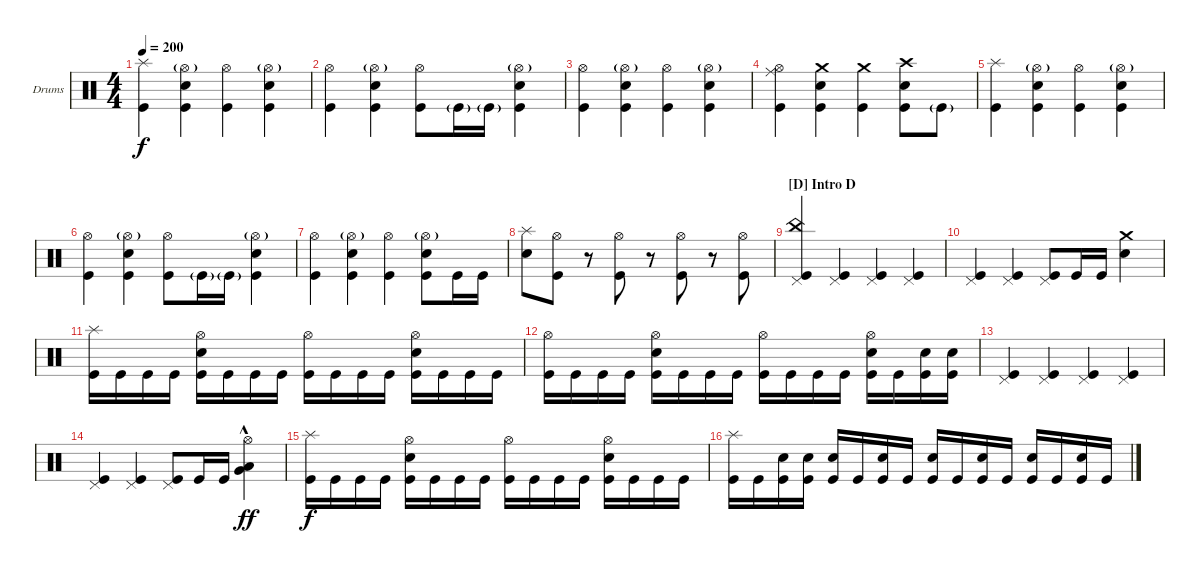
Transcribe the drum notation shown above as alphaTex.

\defaultSystemsLayout 4
\bracketExtendMode groupsimilarinstruments
\firstSystemTrackNameOrientation horizontal
\otherSystemsTrackNameOrientation horizontal
\track ("Drumkit" "Drums") {instrument percussion}
\staff {score}
\articulation defaults
\ts (4 4)
\tempo 200
\clef neutral
\ks c
("Splash (hit)" "Kick (hit)").4{dy f} ("Snare (hit) 2" "Kick (hit)" "Hi-Hat (open)"{g}).4 ("Kick (hit)" "Hi-Hat (open)").4 ("Snare (hit) 2" "Kick (hit)" "Hi-Hat (open)"{g}).4 |
("Kick (hit)" "Hi-Hat (open)").4 ("Snare (hit) 2" "Kick (hit)" "Hi-Hat (open)"{g}).4 ("Kick (hit)" "Hi-Hat (open)").8 "Kick (hit)"{g}.16 "Kick (hit)"{g}.16 ("Kick (hit)" "Snare (hit) 2" "Hi-Hat (open)"{g}).4 |
("Kick (hit)" "Hi-Hat (open)").4 ("Snare (hit) 2" "Kick (hit)" "Hi-Hat (open)"{g}).4 ("Kick (hit)" "Hi-Hat (open)").4 ("Snare (hit) 2" "Kick (hit)" "Hi-Hat (open)"{g}).4 |
("Kick (hit)" "Hi-Hat (open)" "Ride (middle)").4 ("Kick (hit)" "Snare (hit) 2" "Crash medium (hit)").4 ("Kick (hit)" "Crash medium (hit)").4 ("Kick (hit)" "Snare (hit) 2" "Crash high (hit)").8 "Kick (hit)"{g}.8 |
("Splash (hit)" "Kick (hit)").4 ("Snare (hit) 2" "Kick (hit)" "Hi-Hat (open)"{g}).4 ("Kick (hit)" "Hi-Hat (open)").4 ("Snare (hit) 2" "Kick (hit)" "Hi-Hat (open)"{g}).4 |
("Kick (hit)" "Hi-Hat (open)").4 ("Snare (hit) 2" "Kick (hit)" "Hi-Hat (open)"{g}).4 ("Kick (hit)" "Hi-Hat (open)").8 "Kick (hit)"{g}.16 "Kick (hit)"{g}.16 ("Kick (hit)" "Snare (hit) 2" "Hi-Hat (open)"{g}).4 |
("Kick (hit)" "Hi-Hat (open)").4 ("Snare (hit) 2" "Kick (hit)" "Hi-Hat (open)"{g}).4 ("Kick (hit)" "Hi-Hat (open)").4 ("Snare (hit) 2" "Kick (hit)" "Hi-Hat (open)"{g}).8 "Kick (hit)".16 "Kick (hit)".16 |
("Snare (hit) 2" "Splash (hit)").8 ("Kick (hit)" "Hi-Hat (open)").8 r.8 ("Kick (hit)" "Hi-Hat (open)").8 r.8 ("Kick (hit)" "Hi-Hat (open)").8 r.8 ("Kick (hit)" "Hi-Hat (open)").8 |
\section ("D" "Intro D")
("China (hit)" "Kick (hit)" "Pedal Hi-Hat (hit)").4 ("Kick (hit)" "Pedal Hi-Hat (hit)").4 ("Kick (hit)" "Pedal Hi-Hat (hit)").4 ("Kick (hit)" "Pedal Hi-Hat (hit)").4 |
("Kick (hit)" "Pedal Hi-Hat (hit)").4 ("Kick (hit)" "Pedal Hi-Hat (hit)").4 ("Kick (hit)" "Pedal Hi-Hat (hit)").8 "Kick (hit)".16 "Kick (hit)".16 ("Snare (hit) 2" "Crash medium (hit)").4 |
("Kick (hit)" "Splash (hit)").16 "Kick (hit)".16 "Kick (hit)".16 "Kick (hit)".16 ("Kick (hit)" "Hi-Hat (open)" "Snare (hit) 2").16 "Kick (hit)".16 "Kick (hit)".16 "Kick (hit)".16 ("Kick (hit)" "Hi-Hat (open)").16 "Kick (hit)".16 "Kick (hit)".16 "Kick (hit)".16 ("Kick (hit)" "Hi-Hat (open)" "Snare (hit) 2").16 "Kick (hit)".16 "Kick (hit)".16 "Kick (hit)".16 |
("Kick (hit)" "Hi-Hat (open)").16 "Kick (hit)".16 "Kick (hit)".16 "Kick (hit)".16 ("Kick (hit)" "Hi-Hat (open)" "Snare (hit) 2").16 "Kick (hit)".16 "Kick (hit)".16 "Kick (hit)".16 ("Kick (hit)" "Hi-Hat (open)").16 "Kick (hit)".16 "Kick (hit)".16 "Kick (hit)".16 ("Kick (hit)" "Hi-Hat (open)" "Snare (hit) 2").16 "Kick (hit)".16 ("Kick (hit)" "Snare (hit) 2").16 ("Kick (hit)" "Snare (hit) 2").16 |
("Kick (hit)" "Pedal Hi-Hat (hit)").4 ("Kick (hit)" "Pedal Hi-Hat (hit)").4 ("Kick (hit)" "Pedal Hi-Hat (hit)").4 ("Kick (hit)" "Pedal Hi-Hat (hit)").4 |
("Kick (hit)" "Pedal Hi-Hat (hit)").4 ("Kick (hit)" "Pedal Hi-Hat (hit)").4 ("Kick (hit)" "Pedal Hi-Hat (hit)").8 "Kick (hit)".16 "Kick (hit)".16 ("Low Tom (hit)"{hac} "Hi-Hat (open)" "Very Low Tom (hit)"{hac}).4{dy ff} |
("Kick (hit)" "Splash (hit)").16{dy f} "Kick (hit)".16 "Kick (hit)".16 "Kick (hit)".16 ("Kick (hit)" "Hi-Hat (open)" "Snare (hit) 2").16 "Kick (hit)".16 "Kick (hit)".16 "Kick (hit)".16 ("Kick (hit)" "Hi-Hat (open)").16 "Kick (hit)".16 "Kick (hit)".16 "Kick (hit)".16 ("Kick (hit)" "Hi-Hat (open)" "Snare (hit) 2").16 "Kick (hit)".16 "Kick (hit)".16 "Kick (hit)".16 |
("Kick (hit)" "Splash (hit)").16 "Kick (hit)".16 ("Kick (hit)" "Snare (hit) 2").16 ("Kick (hit)" "Snare (hit) 2").16 ("Kick (hit)" "Snare (hit) 2").16 "Kick (hit)".16 ("Kick (hit)" "Snare (hit) 2").16 "Kick (hit)".16 ("Kick (hit)" "Snare (hit) 2").16 "Kick (hit)".16 ("Kick (hit)" "Snare (hit) 2").16 "Kick (hit)".16 ("Kick (hit)" "Snare (hit) 2").16 "Kick (hit)".16 ("Kick (hit)" "Snare (hit) 2").16 "Kick (hit)".16
